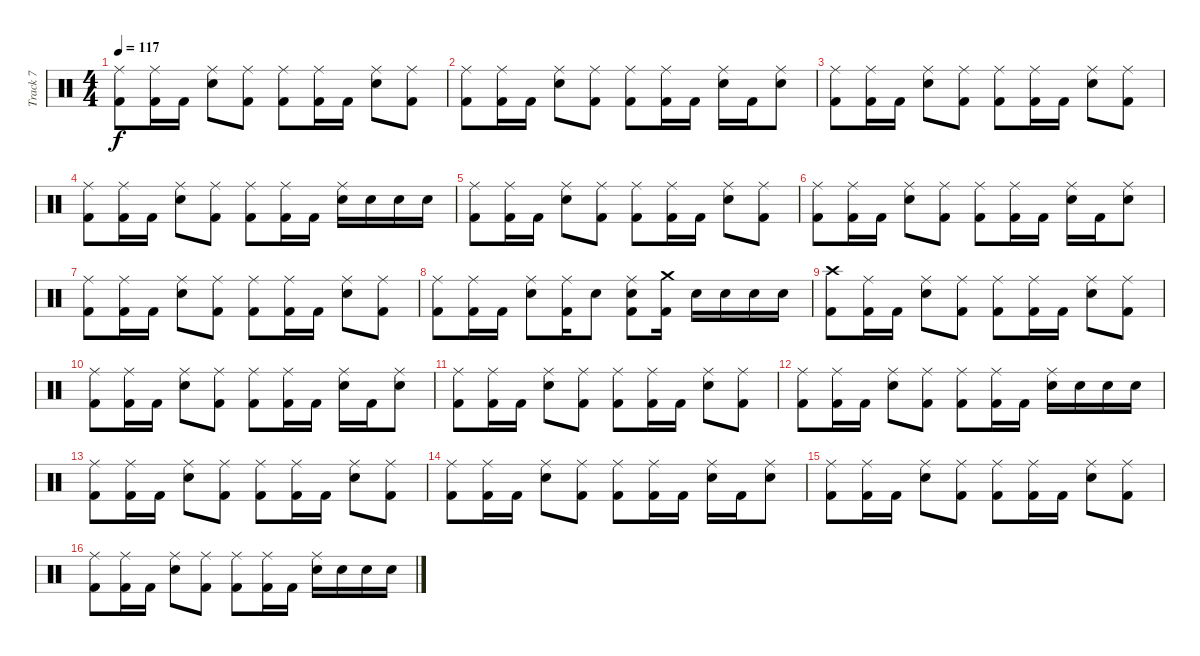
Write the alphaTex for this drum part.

\track ("Track 7" "Track 7") {instrument percussion}
\staff {score}
\articulation defaults
\ts (4 4)
\tempo 117
\clef neutral
\ks c
("Ride (middle)" "Kick (hit) 2").8{dy f} ("Ride (middle)" "Kick (hit) 2").16 "Kick (hit) 2".16 ("Ride (middle)" "Snare (hit) 2").8 ("Ride (middle)" "Kick (hit) 2").8 ("Ride (middle)" "Kick (hit) 2").8 ("Ride (middle)" "Kick (hit) 2").16 "Kick (hit) 2".16 ("Ride (middle)" "Snare (hit) 2").8 ("Ride (middle)" "Kick (hit) 2").8 |
("Ride (middle)" "Kick (hit) 2").8 ("Ride (middle)" "Kick (hit) 2").16 "Kick (hit) 2".16 ("Ride (middle)" "Snare (hit) 2").8 ("Ride (middle)" "Kick (hit) 2").8 ("Ride (middle)" "Kick (hit) 2").8 ("Ride (middle)" "Kick (hit) 2").16 "Kick (hit) 2".16 ("Ride (middle)" "Snare (hit) 2").16 "Kick (hit) 2".16 ("Ride (middle)" "Snare (hit) 2").8 |
("Ride (middle)" "Kick (hit) 2").8 ("Ride (middle)" "Kick (hit) 2").16 "Kick (hit) 2".16 ("Ride (middle)" "Snare (hit) 2").8 ("Ride (middle)" "Kick (hit) 2").8 ("Ride (middle)" "Kick (hit) 2").8 ("Ride (middle)" "Kick (hit) 2").16 "Kick (hit) 2".16 ("Ride (middle)" "Snare (hit) 2").8 ("Ride (middle)" "Kick (hit) 2").8 |
("Ride (middle)" "Kick (hit) 2").8 ("Ride (middle)" "Kick (hit) 2").16 "Kick (hit) 2".16 ("Ride (middle)" "Snare (hit) 2").8 ("Ride (middle)" "Kick (hit) 2").8 ("Ride (middle)" "Kick (hit) 2").8 ("Ride (middle)" "Kick (hit) 2").16 "Kick (hit) 2".16 ("Ride (middle)" "Snare (hit) 2").16 "Snare (hit) 2".16 "Snare (hit) 2".16 "Snare (hit) 2".16 |
("Ride (middle)" "Kick (hit) 2").8 ("Ride (middle)" "Kick (hit) 2").16 "Kick (hit) 2".16 ("Ride (middle)" "Snare (hit) 2").8 ("Ride (middle)" "Kick (hit) 2").8 ("Ride (middle)" "Kick (hit) 2").8 ("Ride (middle)" "Kick (hit) 2").16 "Kick (hit) 2".16 ("Ride (middle)" "Snare (hit) 2").8 ("Ride (middle)" "Kick (hit) 2").8 |
("Ride (middle)" "Kick (hit) 2").8 ("Ride (middle)" "Kick (hit) 2").16 "Kick (hit) 2".16 ("Ride (middle)" "Snare (hit) 2").8 ("Ride (middle)" "Kick (hit) 2").8 ("Ride (middle)" "Kick (hit) 2").8 ("Ride (middle)" "Kick (hit) 2").16 "Kick (hit) 2".16 ("Ride (middle)" "Snare (hit) 2").16 "Kick (hit) 2".16 ("Ride (middle)" "Snare (hit) 2").8 |
("Ride (middle)" "Kick (hit) 2").8 ("Ride (middle)" "Kick (hit) 2").16 "Kick (hit) 2".16 ("Ride (middle)" "Snare (hit) 2").8 ("Ride (middle)" "Kick (hit) 2").8 ("Ride (middle)" "Kick (hit) 2").8 ("Ride (middle)" "Kick (hit) 2").16 "Kick (hit) 2".16 ("Ride (middle)" "Snare (hit) 2").8 ("Ride (middle)" "Kick (hit) 2").8 |
("Ride (middle)" "Kick (hit) 2").8 ("Ride (middle)" "Kick (hit) 2").16 "Kick (hit) 2".16 ("Ride (middle)" "Snare (hit) 2").8 ("Ride (middle)" "Kick (hit) 2").16 "Snare (hit) 2".8 ("Ride (middle)" "Snare (hit) 2" "Kick (hit) 2").8 ("Crash medium (hit)" "Kick (hit) 2").16 "Snare (hit) 2".16 "Snare (hit) 2".16 "Snare (hit) 2".16 "Snare (hit) 2".16 |
("Crash high (hit)" "Kick (hit) 2").8 ("Ride (middle)" "Kick (hit) 2").16 "Kick (hit) 2".16 ("Ride (middle)" "Snare (hit) 2").8 ("Ride (middle)" "Kick (hit) 2").8 ("Ride (middle)" "Kick (hit) 2").8 ("Ride (middle)" "Kick (hit) 2").16 "Kick (hit) 2".16 ("Ride (middle)" "Snare (hit) 2").8 ("Ride (middle)" "Kick (hit) 2").8 |
("Ride (middle)" "Kick (hit) 2").8 ("Ride (middle)" "Kick (hit) 2").16 "Kick (hit) 2".16 ("Ride (middle)" "Snare (hit) 2").8 ("Ride (middle)" "Kick (hit) 2").8 ("Ride (middle)" "Kick (hit) 2").8 ("Ride (middle)" "Kick (hit) 2").16 "Kick (hit) 2".16 ("Ride (middle)" "Snare (hit) 2").16 "Kick (hit) 2".16 ("Ride (middle)" "Snare (hit) 2").8 |
("Ride (middle)" "Kick (hit) 2").8 ("Ride (middle)" "Kick (hit) 2").16 "Kick (hit) 2".16 ("Ride (middle)" "Snare (hit) 2").8 ("Ride (middle)" "Kick (hit) 2").8 ("Ride (middle)" "Kick (hit) 2").8 ("Ride (middle)" "Kick (hit) 2").16 "Kick (hit) 2".16 ("Ride (middle)" "Snare (hit) 2").8 ("Ride (middle)" "Kick (hit) 2").8 |
("Ride (middle)" "Kick (hit) 2").8 ("Ride (middle)" "Kick (hit) 2").16 "Kick (hit) 2".16 ("Ride (middle)" "Snare (hit) 2").8 ("Ride (middle)" "Kick (hit) 2").8 ("Ride (middle)" "Kick (hit) 2").8 ("Ride (middle)" "Kick (hit) 2").16 "Kick (hit) 2".16 ("Ride (middle)" "Snare (hit) 2").16 "Snare (hit) 2".16 "Snare (hit) 2".16 "Snare (hit) 2".16 |
("Ride (middle)" "Kick (hit) 2").8 ("Ride (middle)" "Kick (hit) 2").16 "Kick (hit) 2".16 ("Ride (middle)" "Snare (hit) 2").8 ("Ride (middle)" "Kick (hit) 2").8 ("Ride (middle)" "Kick (hit) 2").8 ("Ride (middle)" "Kick (hit) 2").16 "Kick (hit) 2".16 ("Ride (middle)" "Snare (hit) 2").8 ("Ride (middle)" "Kick (hit) 2").8 |
("Ride (middle)" "Kick (hit) 2").8 ("Ride (middle)" "Kick (hit) 2").16 "Kick (hit) 2".16 ("Ride (middle)" "Snare (hit) 2").8 ("Ride (middle)" "Kick (hit) 2").8 ("Ride (middle)" "Kick (hit) 2").8 ("Ride (middle)" "Kick (hit) 2").16 "Kick (hit) 2".16 ("Ride (middle)" "Snare (hit) 2").16 "Kick (hit) 2".16 ("Ride (middle)" "Snare (hit) 2").8 |
("Ride (middle)" "Kick (hit) 2").8 ("Ride (middle)" "Kick (hit) 2").16 "Kick (hit) 2".16 ("Ride (middle)" "Snare (hit) 2").8 ("Ride (middle)" "Kick (hit) 2").8 ("Ride (middle)" "Kick (hit) 2").8 ("Ride (middle)" "Kick (hit) 2").16 "Kick (hit) 2".16 ("Ride (middle)" "Snare (hit) 2").8 ("Ride (middle)" "Kick (hit) 2").8 |
("Ride (middle)" "Kick (hit) 2").8 ("Ride (middle)" "Kick (hit) 2").16 "Kick (hit) 2".16 ("Ride (middle)" "Snare (hit) 2").8 ("Ride (middle)" "Kick (hit) 2").8 ("Ride (middle)" "Kick (hit) 2").8 ("Ride (middle)" "Kick (hit) 2").16 "Kick (hit) 2".16 ("Ride (middle)" "Snare (hit) 2").16 "Snare (hit) 2".16 "Snare (hit) 2".16 "Snare (hit) 2".16
